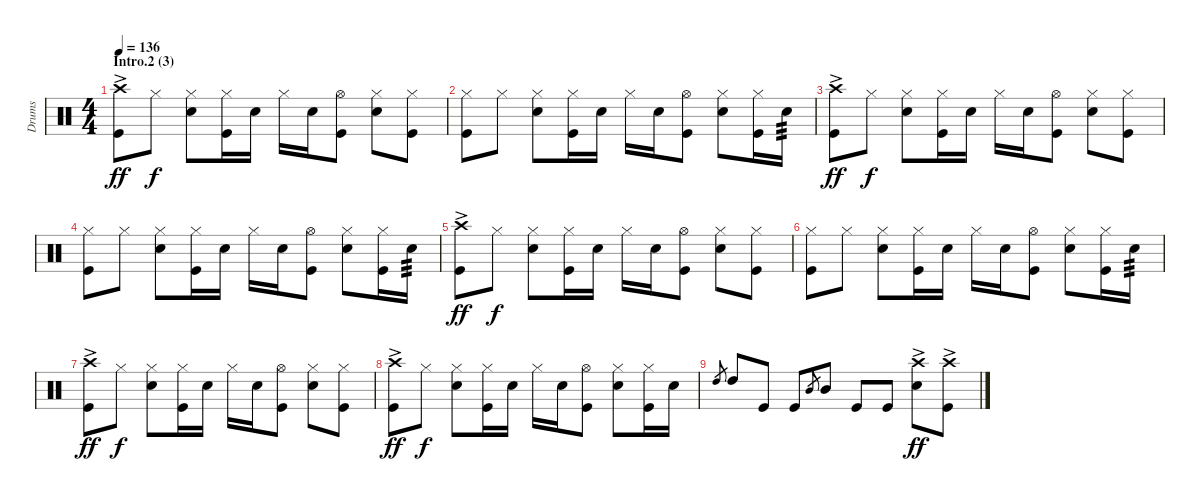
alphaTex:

\track ("Drums" "Drums") {instrument percussion}
\staff {score}
\articulation defaults
\ts (4 4)
\section ("" "Intro.2 (3)")
\tempo 136
\clef neutral
\ks c
("Crash high (hit)"{ac} "Kick (hit)").8{dy ff} "Hi-Hat (closed)".8{dy f} ("Hi-Hat (closed)" "Snare (hit) 2").8 ("Hi-Hat (closed)" "Kick (hit)").16 "Snare (hit) 2".16 "Hi-Hat (closed)".16 "Snare (hit) 2".16 ("Hi-Hat (open)" "Kick (hit)").8 ("Hi-Hat (closed)" "Snare (hit) 2").8 ("Hi-Hat (closed)" "Kick (hit)").8 |
("Hi-Hat (closed)" "Kick (hit)").8 "Hi-Hat (closed)".8 ("Hi-Hat (closed)" "Snare (hit) 2").8 ("Hi-Hat (closed)" "Kick (hit)").16 "Snare (hit) 2".16 "Hi-Hat (closed)".16 "Snare (hit) 2".16 ("Hi-Hat (open)" "Kick (hit)").8 ("Hi-Hat (closed)" "Snare (hit) 2").8 ("Hi-Hat (closed)" "Kick (hit)").16 "Snare (hit) 2".16{tp 3} |
("Crash high (hit)"{ac} "Kick (hit)").8{dy ff} "Hi-Hat (closed)".8{dy f} ("Hi-Hat (closed)" "Snare (hit) 2").8 ("Hi-Hat (closed)" "Kick (hit)").16 "Snare (hit) 2".16 "Hi-Hat (closed)".16 "Snare (hit) 2".16 ("Hi-Hat (open)" "Kick (hit)").8 ("Hi-Hat (closed)" "Snare (hit) 2").8 ("Hi-Hat (closed)" "Kick (hit)").8 |
("Hi-Hat (closed)" "Kick (hit)").8 "Hi-Hat (closed)".8 ("Hi-Hat (closed)" "Snare (hit) 2").8 ("Hi-Hat (closed)" "Kick (hit)").16 "Snare (hit) 2".16 "Hi-Hat (closed)".16 "Snare (hit) 2".16 ("Hi-Hat (open)" "Kick (hit)").8 ("Hi-Hat (closed)" "Snare (hit) 2").8 ("Hi-Hat (closed)" "Kick (hit)").16 "Snare (hit) 2".16{tp 3} |
("Crash high (hit)"{ac} "Kick (hit)").8{dy ff} "Hi-Hat (closed)".8{dy f} ("Hi-Hat (closed)" "Snare (hit) 2").8 ("Hi-Hat (closed)" "Kick (hit)").16 "Snare (hit) 2".16 "Hi-Hat (closed)".16 "Snare (hit) 2".16 ("Hi-Hat (open)" "Kick (hit)").8 ("Hi-Hat (closed)" "Snare (hit) 2").8 ("Hi-Hat (closed)" "Kick (hit)").8 |
("Hi-Hat (closed)" "Kick (hit)").8 "Hi-Hat (closed)".8 ("Hi-Hat (closed)" "Snare (hit) 2").8 ("Hi-Hat (closed)" "Kick (hit)").16 "Snare (hit) 2".16 "Hi-Hat (closed)".16 "Snare (hit) 2".16 ("Hi-Hat (open)" "Kick (hit)").8 ("Hi-Hat (closed)" "Snare (hit) 2").8 ("Hi-Hat (closed)" "Kick (hit)").16 "Snare (hit) 2".16{tp 3} |
("Crash high (hit)"{ac} "Kick (hit)").8{dy ff} "Hi-Hat (closed)".8{dy f} ("Hi-Hat (closed)" "Snare (hit) 2").8 ("Hi-Hat (closed)" "Kick (hit)").16 "Snare (hit) 2".16 "Hi-Hat (closed)".16 "Snare (hit) 2".16 ("Hi-Hat (open)" "Kick (hit)").8 ("Hi-Hat (closed)" "Snare (hit) 2").8 ("Hi-Hat (closed)" "Kick (hit)").8 |
("Crash high (hit)"{ac} "Kick (hit)").8{dy ff} "Hi-Hat (closed)".8{dy f} ("Hi-Hat (closed)" "Snare (hit) 2").8 ("Hi-Hat (closed)" "Kick (hit)").16 "Snare (hit) 2".16 "Hi-Hat (closed)".16 "Snare (hit) 2".16 ("Hi-Hat (open)" "Kick (hit)").8 ("Hi-Hat (closed)" "Snare (hit) 2").8 ("Hi-Hat (closed)" "Kick (hit)").16 "Snare (hit) 2".16 |
"High Tom (hit)".8{gr} "High Tom (hit)".8 "Kick (hit)".8 "Kick (hit)".8 "Mid Tom (hit)".8{gr} "Mid Tom (hit)".8 "Kick (hit)".8 "Kick (hit)".8 ("Crash high (hit)"{ac} "Snare (hit) 2").8{dy ff} ("Crash high (hit)"{ac} "Kick (hit)").8
